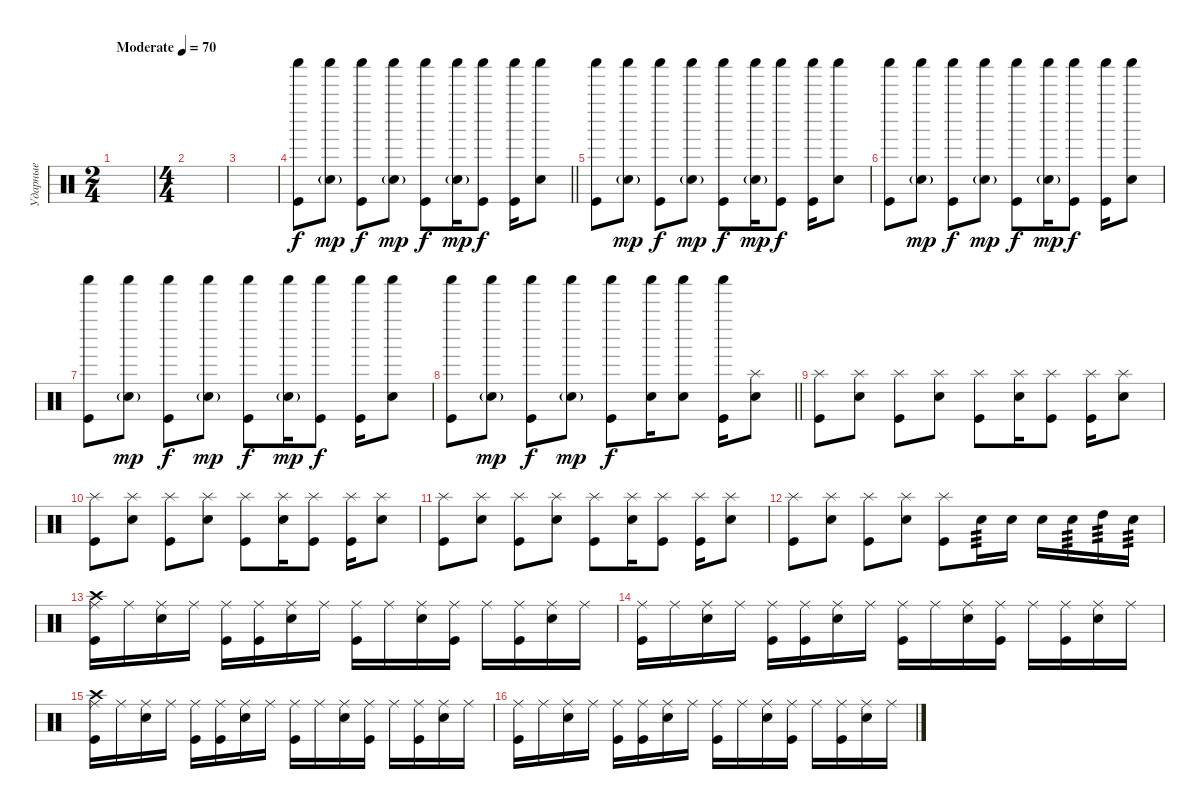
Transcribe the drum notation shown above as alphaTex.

\track ("Ударные" "Ударные") {instrument percussion}
\staff {score}
\articulation defaults
\ts (2 4)
\tempo (70 "Moderate")
\clef neutral
\ks c
|
\ts (4 4)
|
|
\barLineRight lightlight
("Shaker (hit)" "Kick (hit)").8 ("Shaker (hit)" "Hand Clap (hit)"{g}).8{dy mp} ("Shaker (hit)" "Kick (hit)").8{dy f} ("Shaker (hit)" "Hand Clap (hit)"{g}).8{dy mp} ("Shaker (hit)" "Kick (hit)").8{dy f} ("Shaker (hit)" "Hand Clap (hit)"{g}).16{dy mp} ("Shaker (hit)" "Kick (hit)").8{dy f} ("Shaker (hit)" "Kick (hit)").16 ("Shaker (hit)" "Electric Snare (hit)").8 |
("Shaker (hit)" "Kick (hit)").8 ("Shaker (hit)" "Hand Clap (hit)"{g}).8{dy mp} ("Shaker (hit)" "Kick (hit)").8{dy f} ("Shaker (hit)" "Hand Clap (hit)"{g}).8{dy mp} ("Shaker (hit)" "Kick (hit)").8{dy f} ("Shaker (hit)" "Hand Clap (hit)"{g}).16{dy mp} ("Shaker (hit)" "Kick (hit)").8{dy f} ("Shaker (hit)" "Kick (hit)").16 ("Shaker (hit)" "Electric Snare (hit)").8 |
("Shaker (hit)" "Kick (hit)").8 ("Shaker (hit)" "Hand Clap (hit)"{g}).8{dy mp} ("Shaker (hit)" "Kick (hit)").8{dy f} ("Shaker (hit)" "Hand Clap (hit)"{g}).8{dy mp} ("Shaker (hit)" "Kick (hit)").8{dy f} ("Shaker (hit)" "Hand Clap (hit)"{g}).16{dy mp} ("Shaker (hit)" "Kick (hit)").8{dy f} ("Shaker (hit)" "Kick (hit)").16 ("Shaker (hit)" "Electric Snare (hit)").8 |
("Shaker (hit)" "Kick (hit)").8 ("Shaker (hit)" "Hand Clap (hit)"{g}).8{dy mp} ("Shaker (hit)" "Kick (hit)").8{dy f} ("Shaker (hit)" "Hand Clap (hit)"{g}).8{dy mp} ("Shaker (hit)" "Kick (hit)").8{dy f} ("Shaker (hit)" "Hand Clap (hit)"{g}).16{dy mp} ("Shaker (hit)" "Kick (hit)").8{dy f} ("Shaker (hit)" "Kick (hit)").16 ("Shaker (hit)" "Electric Snare (hit)").8 |
\barLineRight lightlight
("Shaker (hit)" "Kick (hit)").8 ("Shaker (hit)" "Hand Clap (hit)"{g}).8{dy mp} ("Shaker (hit)" "Kick (hit)").8{dy f} ("Shaker (hit)" "Hand Clap (hit)"{g}).8{dy mp} ("Shaker (hit)" "Kick (hit)").8{dy f} ("Shaker (hit)" "Electric Snare (hit)").16 ("Shaker (hit)" "Electric Snare (hit)").8 ("Shaker (hit)" "Kick (hit)").16 ("Splash (hit)" "Electric Snare (hit)").8 |
("Splash (hit)" "Kick (hit)").8 ("Splash (hit)" "Electric Snare (hit)").8 ("Splash (hit)" "Kick (hit)").8 ("Splash (hit)" "Electric Snare (hit)").8 ("Splash (hit)" "Kick (hit)").8 ("Splash (hit)" "Electric Snare (hit)").16 ("Splash (hit)" "Kick (hit)").8 ("Splash (hit)" "Kick (hit)").16 ("Splash (hit)" "Electric Snare (hit)").8 |
("Splash (hit)" "Kick (hit)").8 ("Splash (hit)" "Electric Snare (hit)").8 ("Splash (hit)" "Kick (hit)").8 ("Splash (hit)" "Electric Snare (hit)").8 ("Splash (hit)" "Kick (hit)").8 ("Splash (hit)" "Electric Snare (hit)").16 ("Splash (hit)" "Kick (hit)").8 ("Splash (hit)" "Kick (hit)").16 ("Splash (hit)" "Electric Snare (hit)").8 |
("Splash (hit)" "Kick (hit)").8 ("Splash (hit)" "Electric Snare (hit)").8 ("Splash (hit)" "Kick (hit)").8 ("Splash (hit)" "Electric Snare (hit)").8 ("Splash (hit)" "Kick (hit)").8 ("Splash (hit)" "Electric Snare (hit)").16 ("Splash (hit)" "Kick (hit)").8 ("Splash (hit)" "Kick (hit)").16 ("Splash (hit)" "Electric Snare (hit)").8 |
("Splash (hit)" "Kick (hit)").8 ("Splash (hit)" "Electric Snare (hit)").8 ("Splash (hit)" "Kick (hit)").8 ("Splash (hit)" "Electric Snare (hit)").8 ("Splash (hit)" "Kick (hit)").8 "Electric Snare (hit)".16{tp 3} "Electric Snare (hit)".16 "Electric Snare (hit)".16 "Electric Snare (hit)".16{tp 3} "High Tom (hit)".16{tp 3} "Electric Snare (hit)".16{tp 3} |
("Ride (middle)" "Crash high (hit)" "Kick (hit)").16 "Ride (middle)".16 ("Ride (middle)" "Electric Snare (hit)").16 "Ride (middle)".16 ("Ride (middle)" "Kick (hit)").16 ("Ride (middle)" "Kick (hit)").16 ("Ride (middle)" "Electric Snare (hit)").16 "Ride (middle)".16 ("Ride (middle)" "Kick (hit)").16 "Ride (middle)".16 ("Ride (middle)" "Electric Snare (hit)").16 ("Ride (middle)" "Kick (hit)").16 "Ride (middle)".16 ("Ride (middle)" "Kick (hit)").16 ("Ride (middle)" "Electric Snare (hit)").16 "Ride (middle)".16 |
("Ride (middle)" "Kick (hit)").16 "Ride (middle)".16 ("Ride (middle)" "Electric Snare (hit)").16 "Ride (middle)".16 ("Ride (middle)" "Kick (hit)").16 ("Ride (middle)" "Kick (hit)").16 ("Ride (middle)" "Electric Snare (hit)").16 "Ride (middle)".16 ("Ride (middle)" "Kick (hit)").16 "Ride (middle)".16 ("Ride (middle)" "Electric Snare (hit)").16 ("Ride (middle)" "Kick (hit)").16 "Ride (middle)".16 ("Ride (middle)" "Kick (hit)").16 ("Ride (middle)" "Electric Snare (hit)").16 "Ride (middle)".16 |
("Ride (middle)" "Crash high (hit)" "Kick (hit)").16 "Ride (middle)".16 ("Ride (middle)" "Electric Snare (hit)").16 "Ride (middle)".16 ("Ride (middle)" "Kick (hit)").16 ("Ride (middle)" "Kick (hit)").16 ("Ride (middle)" "Electric Snare (hit)").16 "Ride (middle)".16 ("Ride (middle)" "Kick (hit)").16 "Ride (middle)".16 ("Ride (middle)" "Electric Snare (hit)").16 ("Ride (middle)" "Kick (hit)").16 "Ride (middle)".16 ("Ride (middle)" "Kick (hit)").16 ("Ride (middle)" "Electric Snare (hit)").16 "Ride (middle)".16 |
("Ride (middle)" "Kick (hit)").16 "Ride (middle)".16 ("Ride (middle)" "Electric Snare (hit)").16 "Ride (middle)".16 ("Ride (middle)" "Kick (hit)").16 ("Ride (middle)" "Kick (hit)").16 ("Ride (middle)" "Electric Snare (hit)").16 "Ride (middle)".16 ("Ride (middle)" "Kick (hit)").16 "Ride (middle)".16 ("Ride (middle)" "Electric Snare (hit)").16 ("Ride (middle)" "Kick (hit)").16 "Ride (middle)".16 ("Ride (middle)" "Kick (hit)").16 ("Ride (middle)" "Electric Snare (hit)").16 "Ride (middle)".16
